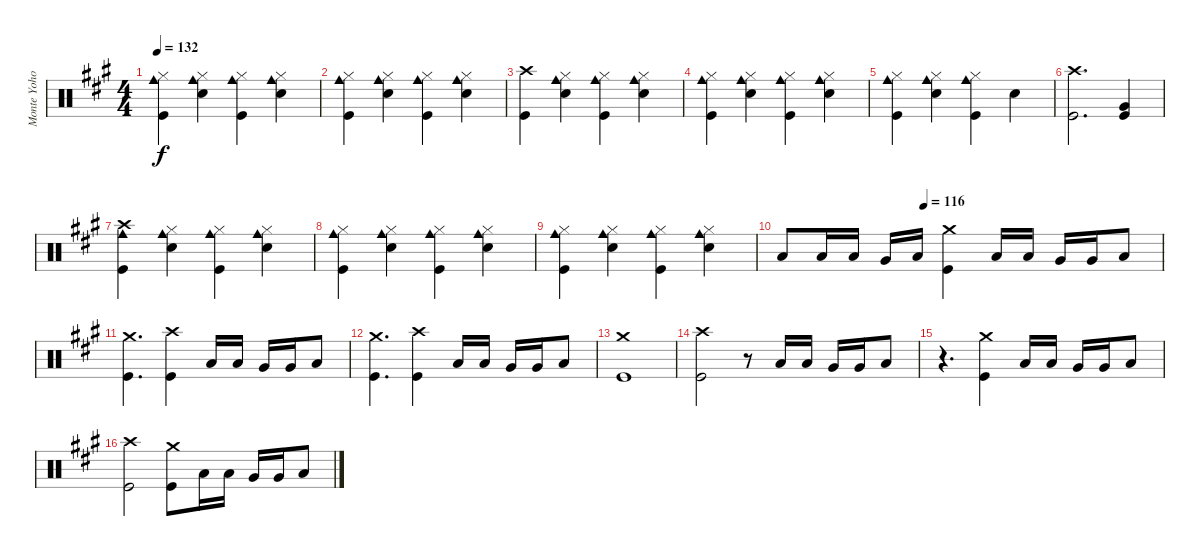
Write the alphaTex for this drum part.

\track ("Monte Yoho Drums" "Monte Yoho") {instrument percussion}
\staff {score}
\articulation defaults
\ts (4 4)
\tempo 132
\clef neutral
\ks a
("Hi-Hat (closed)" "Cowbell medium (hit)" "Kick (hit)").4{dy f} ("Hi-Hat (closed)" "Cowbell medium (hit)" "Snare (hit) 2").4 ("Hi-Hat (closed)" "Cowbell medium (hit)" "Kick (hit)").4 ("Hi-Hat (closed)" "Cowbell medium (hit)" "Snare (hit) 2").4 |
("Hi-Hat (closed)" "Cowbell medium (hit)" "Kick (hit)").4 ("Hi-Hat (closed)" "Cowbell medium (hit)" "Snare (hit) 2").4 ("Hi-Hat (closed)" "Cowbell medium (hit)" "Kick (hit)").4 ("Hi-Hat (closed)" "Cowbell medium (hit)" "Snare (hit) 2").4 |
("Crash high (hit)" "Kick (hit)").4 ("Hi-Hat (closed)" "Cowbell medium (hit)" "Snare (hit) 2").4 ("Hi-Hat (closed)" "Cowbell medium (hit)" "Kick (hit)").4 ("Hi-Hat (closed)" "Cowbell medium (hit)" "Snare (hit) 2").4 |
("Hi-Hat (closed)" "Cowbell medium (hit)" "Kick (hit)").4 ("Hi-Hat (closed)" "Cowbell medium (hit)" "Snare (hit) 2").4 ("Hi-Hat (closed)" "Cowbell medium (hit)" "Kick (hit)").4 ("Hi-Hat (closed)" "Cowbell medium (hit)" "Snare (hit) 2").4 |
("Hi-Hat (closed)" "Cowbell medium (hit)" "Kick (hit)").4 ("Hi-Hat (closed)" "Cowbell medium (hit)" "Snare (hit) 2").4 ("Hi-Hat (closed)" "Cowbell medium (hit)" "Kick (hit)").4 "Snare (hit) 2".4 |
("Crash high (hit)" "Kick (hit)").2{d} ("Very Low Tom (hit)" "Kick (hit)").4 |
("Crash high (hit)" "Cowbell medium (hit)" "Kick (hit)").4 ("Hi-Hat (closed)" "Cowbell medium (hit)" "Snare (hit) 2").4 ("Hi-Hat (closed)" "Cowbell medium (hit)" "Kick (hit)").4 ("Hi-Hat (closed)" "Cowbell medium (hit)" "Snare (hit) 2").4 |
("Hi-Hat (closed)" "Cowbell medium (hit)" "Kick (hit)").4 ("Hi-Hat (closed)" "Cowbell medium (hit)" "Snare (hit) 2").4 ("Hi-Hat (closed)" "Cowbell medium (hit)" "Kick (hit)").4 ("Hi-Hat (closed)" "Cowbell medium (hit)" "Snare (hit) 2").4 |
("Hi-Hat (closed)" "Cowbell medium (hit)" "Kick (hit)").4 ("Hi-Hat (closed)" "Cowbell medium (hit)" "Snare (hit) 2").4 ("Hi-Hat (closed)" "Cowbell medium (hit)" "Kick (hit)").4 ("Hi-Hat (closed)" "Cowbell medium (hit)" "Snare (hit) 2").4 |
\tempo (116 0.375)
"Low Tom (hit)".8 "Low Tom (hit)".16 "Low Tom (hit)".16 "Very Low Tom (hit)".16 "Low Floor Tom (hit)".16 ("Crash medium (hit)" "Kick (hit)").4 "Low Tom (hit)".16 "Low Tom (hit)".16 "Very Low Tom (hit)".16 "Very Low Tom (hit)".16 "Low Floor Tom (hit)".8 |
("Crash medium (hit)" "Kick (hit)").4{d} ("Crash high (hit)" "Kick (hit)").4 "Low Tom (hit)".16 "Low Tom (hit)".16 "Very Low Tom (hit)".16 "Very Low Tom (hit)".16 "Low Floor Tom (hit)".8 |
("Crash medium (hit)" "Kick (hit)").4{d} ("Crash high (hit)" "Kick (hit)").4 "Low Tom (hit)".16 "Low Tom (hit)".16 "Very Low Tom (hit)".16 "Very Low Tom (hit)".16 "Low Floor Tom (hit)".8 |
("Crash medium (hit)" "Kick (hit)").1 |
("Crash high (hit)" "Kick (hit)").2 r.8 "Low Tom (hit)".16 "Low Tom (hit)".16 "Very Low Tom (hit)".16 "Very Low Tom (hit)".16 "Low Floor Tom (hit)".8 |
r.4{d} ("Crash medium (hit)" "Kick (hit)").4 "Low Tom (hit)".16 "Low Tom (hit)".16 "Very Low Tom (hit)".16 "Very Low Tom (hit)".16 "Low Floor Tom (hit)".8 |
("Crash high (hit)" "Kick (hit)").2 ("Crash medium (hit)" "Kick (hit)").8 "Low Tom (hit)".16 "Low Tom (hit)".16 "Very Low Tom (hit)".16 "Very Low Tom (hit)".16 "Low Floor Tom (hit)".8
